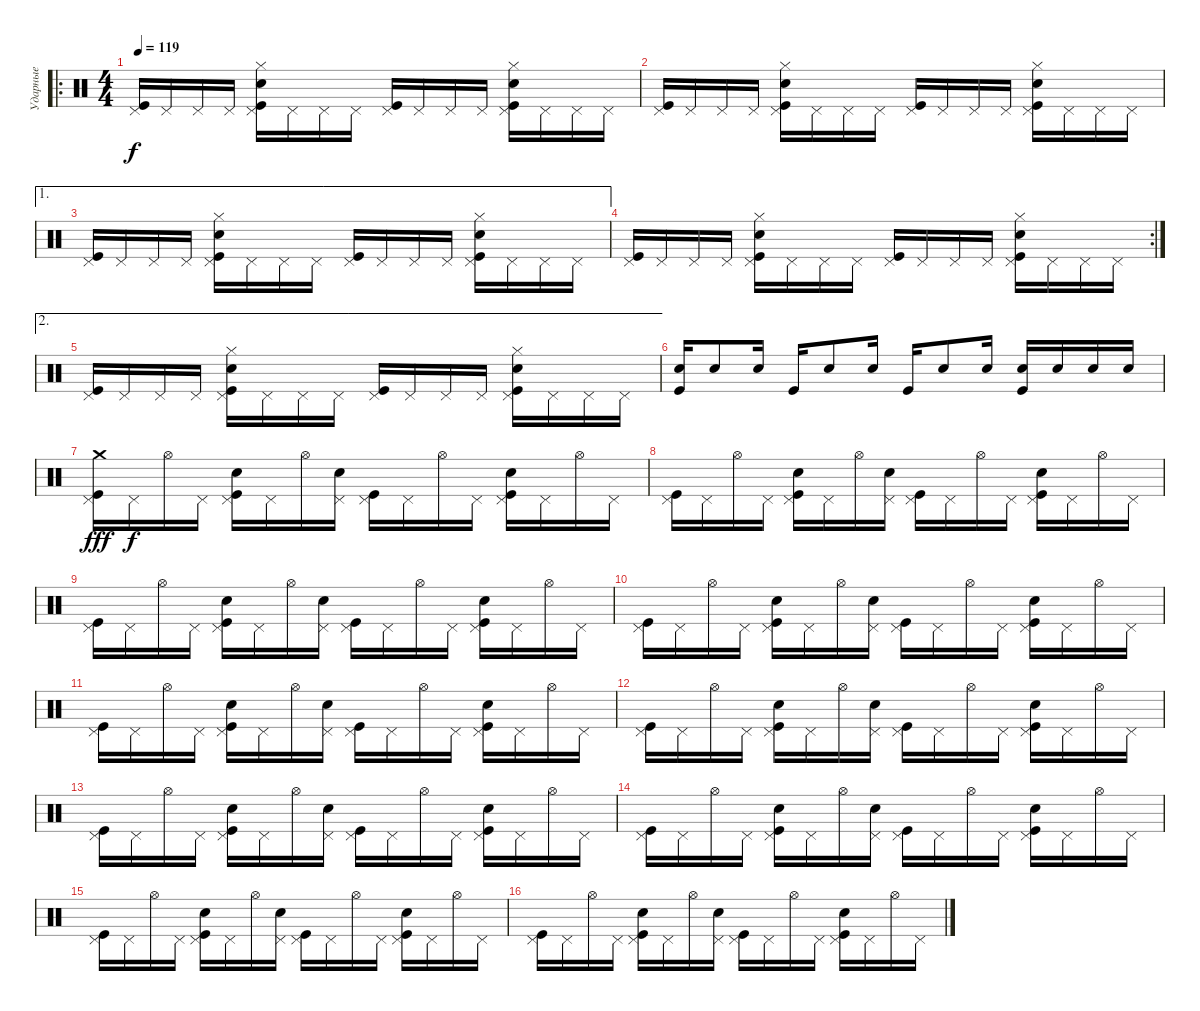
\track ("Ударные" "Ударные") {instrument percussion}
\staff {score}
\articulation defaults
\ro
\ts (4 4)
\tempo 119
\clef neutral
\ks c
("Kick (hit)" "Pedal Hi-Hat (hit)").16{dy f} "Pedal Hi-Hat (hit)".16 "Pedal Hi-Hat (hit)".16 "Pedal Hi-Hat (hit)".16 ("Kick (hit)" "Pedal Hi-Hat (hit)" "Electric Snare (hit)" "Hi-Hat (closed)").16 "Pedal Hi-Hat (hit)".16 "Pedal Hi-Hat (hit)".16 "Pedal Hi-Hat (hit)".16 ("Kick (hit)" "Pedal Hi-Hat (hit)").16 "Pedal Hi-Hat (hit)".16 "Pedal Hi-Hat (hit)".16 "Pedal Hi-Hat (hit)".16 ("Kick (hit)" "Pedal Hi-Hat (hit)" "Electric Snare (hit)" "Hi-Hat (closed)").16 "Pedal Hi-Hat (hit)".16 "Pedal Hi-Hat (hit)".16 "Pedal Hi-Hat (hit)".16 |
("Kick (hit)" "Pedal Hi-Hat (hit)").16 "Pedal Hi-Hat (hit)".16 "Pedal Hi-Hat (hit)".16 "Pedal Hi-Hat (hit)".16 ("Kick (hit)" "Pedal Hi-Hat (hit)" "Electric Snare (hit)" "Hi-Hat (closed)").16 "Pedal Hi-Hat (hit)".16 "Pedal Hi-Hat (hit)".16 "Pedal Hi-Hat (hit)".16 ("Kick (hit)" "Pedal Hi-Hat (hit)").16 "Pedal Hi-Hat (hit)".16 "Pedal Hi-Hat (hit)".16 "Pedal Hi-Hat (hit)".16 ("Kick (hit)" "Pedal Hi-Hat (hit)" "Electric Snare (hit)" "Hi-Hat (closed)").16 "Pedal Hi-Hat (hit)".16 "Pedal Hi-Hat (hit)".16 "Pedal Hi-Hat (hit)".16 |
\ae 1
("Kick (hit)" "Pedal Hi-Hat (hit)").16 "Pedal Hi-Hat (hit)".16 "Pedal Hi-Hat (hit)".16 "Pedal Hi-Hat (hit)".16 ("Kick (hit)" "Pedal Hi-Hat (hit)" "Electric Snare (hit)" "Hi-Hat (closed)").16 "Pedal Hi-Hat (hit)".16 "Pedal Hi-Hat (hit)".16 "Pedal Hi-Hat (hit)".16 ("Kick (hit)" "Pedal Hi-Hat (hit)").16 "Pedal Hi-Hat (hit)".16 "Pedal Hi-Hat (hit)".16 "Pedal Hi-Hat (hit)".16 ("Kick (hit)" "Pedal Hi-Hat (hit)" "Electric Snare (hit)" "Hi-Hat (closed)").16 "Pedal Hi-Hat (hit)".16 "Pedal Hi-Hat (hit)".16 "Pedal Hi-Hat (hit)".16 |
\rc 2
("Kick (hit)" "Pedal Hi-Hat (hit)").16 "Pedal Hi-Hat (hit)".16 "Pedal Hi-Hat (hit)".16 "Pedal Hi-Hat (hit)".16 ("Kick (hit)" "Pedal Hi-Hat (hit)" "Electric Snare (hit)" "Hi-Hat (closed)").16 "Pedal Hi-Hat (hit)".16 "Pedal Hi-Hat (hit)".16 "Pedal Hi-Hat (hit)".16 ("Kick (hit)" "Pedal Hi-Hat (hit)").16 "Pedal Hi-Hat (hit)".16 "Pedal Hi-Hat (hit)".16 "Pedal Hi-Hat (hit)".16 ("Kick (hit)" "Pedal Hi-Hat (hit)" "Electric Snare (hit)" "Hi-Hat (closed)").16 "Pedal Hi-Hat (hit)".16 "Pedal Hi-Hat (hit)".16 "Pedal Hi-Hat (hit)".16 |
\ae 2
("Kick (hit)" "Pedal Hi-Hat (hit)").16 "Pedal Hi-Hat (hit)".16 "Pedal Hi-Hat (hit)".16 "Pedal Hi-Hat (hit)".16 ("Kick (hit)" "Pedal Hi-Hat (hit)" "Electric Snare (hit)" "Hi-Hat (closed)").16 "Pedal Hi-Hat (hit)".16 "Pedal Hi-Hat (hit)".16 "Pedal Hi-Hat (hit)".16 ("Kick (hit)" "Pedal Hi-Hat (hit)").16 "Pedal Hi-Hat (hit)".16 "Pedal Hi-Hat (hit)".16 "Pedal Hi-Hat (hit)".16 ("Kick (hit)" "Pedal Hi-Hat (hit)" "Electric Snare (hit)" "Hi-Hat (closed)").16 "Pedal Hi-Hat (hit)".16 "Pedal Hi-Hat (hit)".16 "Pedal Hi-Hat (hit)".16 |
("Kick (hit)" "Electric Snare (hit)").16 "Electric Snare (hit)".8 "Electric Snare (hit)".16 "Kick (hit)".16 "Electric Snare (hit)".8 "Electric Snare (hit)".16 "Kick (hit)".16 "Electric Snare (hit)".8 "Electric Snare (hit)".16 ("Kick (hit)" "Electric Snare (hit)").16 "Electric Snare (hit)".16 "Electric Snare (hit)".16 "Electric Snare (hit)".16 |
("Kick (hit)" "Pedal Hi-Hat (hit)" "Crash medium (hit)").16{dy fff} "Pedal Hi-Hat (hit)".16{dy f} "Hi-Hat (open)".16 "Pedal Hi-Hat (hit)".16 ("Kick (hit)" "Electric Snare (hit)" "Pedal Hi-Hat (hit)").16 "Pedal Hi-Hat (hit)".16 "Hi-Hat (open)".16 ("Electric Snare (hit)" "Pedal Hi-Hat (hit)").16 ("Kick (hit)" "Pedal Hi-Hat (hit)").16 "Pedal Hi-Hat (hit)".16 "Hi-Hat (open)".16 "Pedal Hi-Hat (hit)".16 ("Kick (hit)" "Electric Snare (hit)" "Pedal Hi-Hat (hit)").16 "Pedal Hi-Hat (hit)".16 "Hi-Hat (open)".16 "Pedal Hi-Hat (hit)".16 |
("Kick (hit)" "Pedal Hi-Hat (hit)").16 "Pedal Hi-Hat (hit)".16 "Hi-Hat (open)".16 "Pedal Hi-Hat (hit)".16 ("Kick (hit)" "Electric Snare (hit)" "Pedal Hi-Hat (hit)").16 "Pedal Hi-Hat (hit)".16 "Hi-Hat (open)".16 ("Electric Snare (hit)" "Pedal Hi-Hat (hit)").16 ("Kick (hit)" "Pedal Hi-Hat (hit)").16 "Pedal Hi-Hat (hit)".16 "Hi-Hat (open)".16 "Pedal Hi-Hat (hit)".16 ("Kick (hit)" "Electric Snare (hit)" "Pedal Hi-Hat (hit)").16 "Pedal Hi-Hat (hit)".16 "Hi-Hat (open)".16 "Pedal Hi-Hat (hit)".16 |
("Kick (hit)" "Pedal Hi-Hat (hit)").16 "Pedal Hi-Hat (hit)".16 "Hi-Hat (open)".16 "Pedal Hi-Hat (hit)".16 ("Kick (hit)" "Electric Snare (hit)" "Pedal Hi-Hat (hit)").16 "Pedal Hi-Hat (hit)".16 "Hi-Hat (open)".16 ("Electric Snare (hit)" "Pedal Hi-Hat (hit)").16 ("Kick (hit)" "Pedal Hi-Hat (hit)").16 "Pedal Hi-Hat (hit)".16 "Hi-Hat (open)".16 "Pedal Hi-Hat (hit)".16 ("Kick (hit)" "Electric Snare (hit)" "Pedal Hi-Hat (hit)").16 "Pedal Hi-Hat (hit)".16 "Hi-Hat (open)".16 "Pedal Hi-Hat (hit)".16 |
("Kick (hit)" "Pedal Hi-Hat (hit)").16 "Pedal Hi-Hat (hit)".16 "Hi-Hat (open)".16 "Pedal Hi-Hat (hit)".16 ("Kick (hit)" "Electric Snare (hit)" "Pedal Hi-Hat (hit)").16 "Pedal Hi-Hat (hit)".16 "Hi-Hat (open)".16 ("Electric Snare (hit)" "Pedal Hi-Hat (hit)").16 ("Kick (hit)" "Pedal Hi-Hat (hit)").16 "Pedal Hi-Hat (hit)".16 "Hi-Hat (open)".16 "Pedal Hi-Hat (hit)".16 ("Kick (hit)" "Electric Snare (hit)" "Pedal Hi-Hat (hit)").16 "Pedal Hi-Hat (hit)".16 "Hi-Hat (open)".16 "Pedal Hi-Hat (hit)".16 |
("Kick (hit)" "Pedal Hi-Hat (hit)").16 "Pedal Hi-Hat (hit)".16 "Hi-Hat (open)".16 "Pedal Hi-Hat (hit)".16 ("Kick (hit)" "Electric Snare (hit)" "Pedal Hi-Hat (hit)").16 "Pedal Hi-Hat (hit)".16 "Hi-Hat (open)".16 ("Electric Snare (hit)" "Pedal Hi-Hat (hit)").16 ("Kick (hit)" "Pedal Hi-Hat (hit)").16 "Pedal Hi-Hat (hit)".16 "Hi-Hat (open)".16 "Pedal Hi-Hat (hit)".16 ("Kick (hit)" "Electric Snare (hit)" "Pedal Hi-Hat (hit)").16 "Pedal Hi-Hat (hit)".16 "Hi-Hat (open)".16 "Pedal Hi-Hat (hit)".16 |
("Kick (hit)" "Pedal Hi-Hat (hit)").16 "Pedal Hi-Hat (hit)".16 "Hi-Hat (open)".16 "Pedal Hi-Hat (hit)".16 ("Kick (hit)" "Electric Snare (hit)" "Pedal Hi-Hat (hit)").16 "Pedal Hi-Hat (hit)".16 "Hi-Hat (open)".16 ("Electric Snare (hit)" "Pedal Hi-Hat (hit)").16 ("Kick (hit)" "Pedal Hi-Hat (hit)").16 "Pedal Hi-Hat (hit)".16 "Hi-Hat (open)".16 "Pedal Hi-Hat (hit)".16 ("Kick (hit)" "Electric Snare (hit)" "Pedal Hi-Hat (hit)").16 "Pedal Hi-Hat (hit)".16 "Hi-Hat (open)".16 "Pedal Hi-Hat (hit)".16 |
("Kick (hit)" "Pedal Hi-Hat (hit)").16 "Pedal Hi-Hat (hit)".16 "Hi-Hat (open)".16 "Pedal Hi-Hat (hit)".16 ("Kick (hit)" "Electric Snare (hit)" "Pedal Hi-Hat (hit)").16 "Pedal Hi-Hat (hit)".16 "Hi-Hat (open)".16 ("Electric Snare (hit)" "Pedal Hi-Hat (hit)").16 ("Kick (hit)" "Pedal Hi-Hat (hit)").16 "Pedal Hi-Hat (hit)".16 "Hi-Hat (open)".16 "Pedal Hi-Hat (hit)".16 ("Kick (hit)" "Electric Snare (hit)" "Pedal Hi-Hat (hit)").16 "Pedal Hi-Hat (hit)".16 "Hi-Hat (open)".16 "Pedal Hi-Hat (hit)".16 |
("Kick (hit)" "Pedal Hi-Hat (hit)").16 "Pedal Hi-Hat (hit)".16 "Hi-Hat (open)".16 "Pedal Hi-Hat (hit)".16 ("Kick (hit)" "Electric Snare (hit)" "Pedal Hi-Hat (hit)").16 "Pedal Hi-Hat (hit)".16 "Hi-Hat (open)".16 ("Electric Snare (hit)" "Pedal Hi-Hat (hit)").16 ("Kick (hit)" "Pedal Hi-Hat (hit)").16 "Pedal Hi-Hat (hit)".16 "Hi-Hat (open)".16 "Pedal Hi-Hat (hit)".16 ("Kick (hit)" "Electric Snare (hit)" "Pedal Hi-Hat (hit)").16 "Pedal Hi-Hat (hit)".16 "Hi-Hat (open)".16 "Pedal Hi-Hat (hit)".16 |
("Kick (hit)" "Pedal Hi-Hat (hit)").16 "Pedal Hi-Hat (hit)".16 "Hi-Hat (open)".16 "Pedal Hi-Hat (hit)".16 ("Kick (hit)" "Electric Snare (hit)" "Pedal Hi-Hat (hit)").16 "Pedal Hi-Hat (hit)".16 "Hi-Hat (open)".16 ("Electric Snare (hit)" "Pedal Hi-Hat (hit)").16 ("Kick (hit)" "Pedal Hi-Hat (hit)").16 "Pedal Hi-Hat (hit)".16 "Hi-Hat (open)".16 "Pedal Hi-Hat (hit)".16 ("Kick (hit)" "Electric Snare (hit)" "Pedal Hi-Hat (hit)").16 "Pedal Hi-Hat (hit)".16 "Hi-Hat (open)".16 "Pedal Hi-Hat (hit)".16 |
("Kick (hit)" "Pedal Hi-Hat (hit)").16 "Pedal Hi-Hat (hit)".16 "Hi-Hat (open)".16 "Pedal Hi-Hat (hit)".16 ("Kick (hit)" "Electric Snare (hit)" "Pedal Hi-Hat (hit)").16 "Pedal Hi-Hat (hit)".16 "Hi-Hat (open)".16 ("Electric Snare (hit)" "Pedal Hi-Hat (hit)").16 ("Kick (hit)" "Pedal Hi-Hat (hit)").16 "Pedal Hi-Hat (hit)".16 "Hi-Hat (open)".16 "Pedal Hi-Hat (hit)".16 ("Kick (hit)" "Electric Snare (hit)" "Pedal Hi-Hat (hit)").16 "Pedal Hi-Hat (hit)".16 "Hi-Hat (open)".16 "Pedal Hi-Hat (hit)".16
